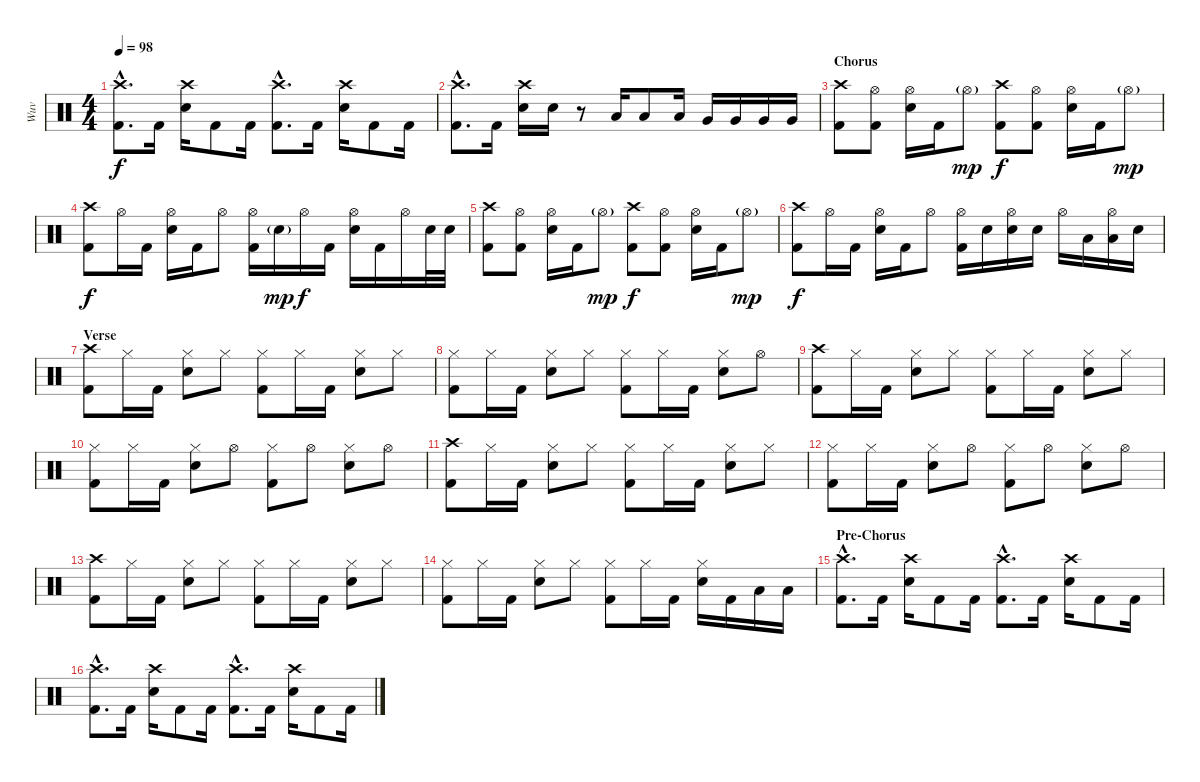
\track ("Wuv" "Wuv") {instrument percussion}
\staff {score}
\articulation defaults
\ts (4 4)
\tempo 98
\clef neutral
\ks c
("Crash high (hit)"{hac} "Kick (hit) 2"{hac}).8{d dy f} "Kick (hit) 2".16 ("Crash high (hit)" "Electric Snare (hit)").16 "Kick (hit) 2".8 "Kick (hit) 2".16 ("Crash high (hit)"{hac} "Kick (hit) 2"{hac}).8{d} "Kick (hit) 2".16 ("Crash high (hit)" "Electric Snare (hit)").16 "Kick (hit) 2".8 "Kick (hit) 2".16 |
("Crash high (hit)"{hac} "Kick (hit) 2"{hac}).8{d} "Kick (hit) 2".16 ("Crash high (hit)" "Electric Snare (hit)").16 "Electric Snare (hit)".16 r.8 "Low Tom (hit)".16 "Low Tom (hit)".8 "Low Tom (hit)".16 "Very Low Tom (hit)".16 "Very Low Tom (hit)".16 "Very Low Tom (hit)".16 "Very Low Tom (hit)".16 |
\section ("" "Chorus")
("Crash high (hit)" "Kick (hit) 2").8 ("Hi-Hat (open)" "Kick (hit) 2").8 ("Hi-Hat (open)" "Electric Snare (hit)").16 "Kick (hit) 2".16 "Hi-Hat (open)"{g}.8{dy mp} ("Crash high (hit)" "Kick (hit) 2").8{dy f} ("Hi-Hat (open)" "Kick (hit) 2").8 ("Hi-Hat (open)" "Electric Snare (hit)").16 "Kick (hit) 2".16 "Hi-Hat (open)"{g}.8{dy mp} |
("Crash high (hit)" "Kick (hit) 2").8{dy f} "Hi-Hat (open)".16 "Kick (hit) 2".16 ("Hi-Hat (open)" "Electric Snare (hit)").16 "Kick (hit) 2".16 "Hi-Hat (open)".8 ("Hi-Hat (open)" "Kick (hit) 2").16 "Electric Snare (hit)"{g}.16{dy mp} "Hi-Hat (open)".16{dy f} "Kick (hit) 2".16 ("Hi-Hat (open)" "Electric Snare (hit)").16 "Kick (hit) 2".16 "Hi-Hat (open)".16 "Electric Snare (hit)".32 "Electric Snare (hit)".32 |
("Crash high (hit)" "Kick (hit) 2").8 ("Hi-Hat (open)" "Kick (hit) 2").8 ("Hi-Hat (open)" "Electric Snare (hit)").16 "Kick (hit) 2".16 "Hi-Hat (open)"{g}.8{dy mp} ("Crash high (hit)" "Kick (hit) 2").8{dy f} ("Hi-Hat (open)" "Kick (hit) 2").8 ("Hi-Hat (open)" "Electric Snare (hit)").16 "Kick (hit) 2".16 "Hi-Hat (open)"{g}.8{dy mp} |
("Crash high (hit)" "Kick (hit) 2").8{dy f} "Hi-Hat (open)".16 "Kick (hit) 2".16 ("Hi-Hat (open)" "Electric Snare (hit)").16 "Kick (hit) 2".16 "Hi-Hat (open)".8 ("Hi-Hat (open)" "Kick (hit) 2").16 "Electric Snare (hit)".16 ("Hi-Hat (open)" "Electric Snare (hit)").16 "Electric Snare (hit)".16 "Hi-Hat (open)".16 "Low Floor Tom (hit)".16 ("Hi-Hat (open)" "Low Floor Tom (hit)").16 "Electric Snare (hit)".16 |
\section ("" "Verse")
("Crash high (hit)" "Kick (hit) 2").8 "Hi-Hat (closed)".16 "Kick (hit) 2".16 ("Hi-Hat (closed)" "Electric Snare (hit)").8 "Hi-Hat (closed)".8 ("Hi-Hat (closed)" "Kick (hit) 2").8 "Hi-Hat (closed)".16 "Kick (hit) 2".16 ("Hi-Hat (closed)" "Electric Snare (hit)").8 "Hi-Hat (closed)".8 |
("Hi-Hat (closed)" "Kick (hit) 2").8 "Hi-Hat (closed)".16 "Kick (hit) 2".16 ("Hi-Hat (closed)" "Electric Snare (hit)").8 "Hi-Hat (closed)".8 ("Hi-Hat (closed)" "Kick (hit) 2").8 "Hi-Hat (closed)".16 "Kick (hit) 2".16 ("Hi-Hat (closed)" "Electric Snare (hit)").8 "Hi-Hat (open)".8 |
("Crash high (hit)" "Kick (hit) 2").8 "Hi-Hat (closed)".16 "Kick (hit) 2".16 ("Hi-Hat (closed)" "Electric Snare (hit)").8 "Hi-Hat (closed)".8 ("Hi-Hat (closed)" "Kick (hit) 2").8 "Hi-Hat (closed)".16 "Kick (hit) 2".16 ("Hi-Hat (closed)" "Electric Snare (hit)").8 "Hi-Hat (closed)".8 |
("Hi-Hat (closed)" "Kick (hit) 2").8 "Hi-Hat (closed)".16 "Kick (hit) 2".16 ("Hi-Hat (closed)" "Electric Snare (hit)").8 "Hi-Hat (open)".8 ("Hi-Hat (closed)" "Kick (hit) 2").8 "Hi-Hat (open)".8 ("Hi-Hat (closed)" "Electric Snare (hit)").8 "Hi-Hat (open)".8 |
("Crash high (hit)" "Kick (hit) 2").8 "Hi-Hat (closed)".16 "Kick (hit) 2".16 ("Hi-Hat (closed)" "Electric Snare (hit)").8 "Hi-Hat (closed)".8 ("Hi-Hat (closed)" "Kick (hit) 2").8 "Hi-Hat (closed)".16 "Kick (hit) 2".16 ("Hi-Hat (closed)" "Electric Snare (hit)").8 "Hi-Hat (closed)".8 |
("Hi-Hat (closed)" "Kick (hit) 2").8 "Hi-Hat (closed)".16 "Kick (hit) 2".16 ("Hi-Hat (closed)" "Electric Snare (hit)").8 "Hi-Hat (open)".8 ("Hi-Hat (closed)" "Kick (hit) 2").8 "Hi-Hat (open)".8 ("Hi-Hat (closed)" "Electric Snare (hit)").8 "Hi-Hat (open)".8 |
("Crash high (hit)" "Kick (hit) 2").8 "Hi-Hat (closed)".16 "Kick (hit) 2".16 ("Hi-Hat (closed)" "Electric Snare (hit)").8 "Hi-Hat (closed)".8 ("Hi-Hat (closed)" "Kick (hit) 2").8 "Hi-Hat (closed)".16 "Kick (hit) 2".16 ("Hi-Hat (closed)" "Electric Snare (hit)").8 "Hi-Hat (closed)".8 |
("Hi-Hat (closed)" "Kick (hit) 2").8 "Hi-Hat (closed)".16 "Kick (hit) 2".16 ("Hi-Hat (closed)" "Electric Snare (hit)").8 "Hi-Hat (closed)".8 ("Hi-Hat (closed)" "Kick (hit) 2").8 "Hi-Hat (closed)".16 "Kick (hit) 2".16 ("Hi-Hat (closed)" "Electric Snare (hit)").16 "Kick (hit) 2".16 "Low Floor Tom (hit)".16 "Low Floor Tom (hit)".16 |
\section ("" "Pre-Chorus")
("Crash high (hit)"{hac} "Kick (hit) 2"{hac}).8{d} "Kick (hit) 2".16 ("Crash high (hit)" "Electric Snare (hit)").16 "Kick (hit) 2".8 "Kick (hit) 2".16 ("Crash high (hit)"{hac} "Kick (hit) 2"{hac}).8{d} "Kick (hit) 2".16 ("Crash high (hit)" "Electric Snare (hit)").16 "Kick (hit) 2".8 "Kick (hit) 2".16 |
("Crash high (hit)"{hac} "Kick (hit) 2"{hac}).8{d} "Kick (hit) 2".16 ("Crash high (hit)" "Electric Snare (hit)").16 "Kick (hit) 2".8 "Kick (hit) 2".16 ("Crash high (hit)"{hac} "Kick (hit) 2"{hac}).8{d} "Kick (hit) 2".16 ("Crash high (hit)" "Electric Snare (hit)").16 "Kick (hit) 2".8 "Kick (hit) 2".16
